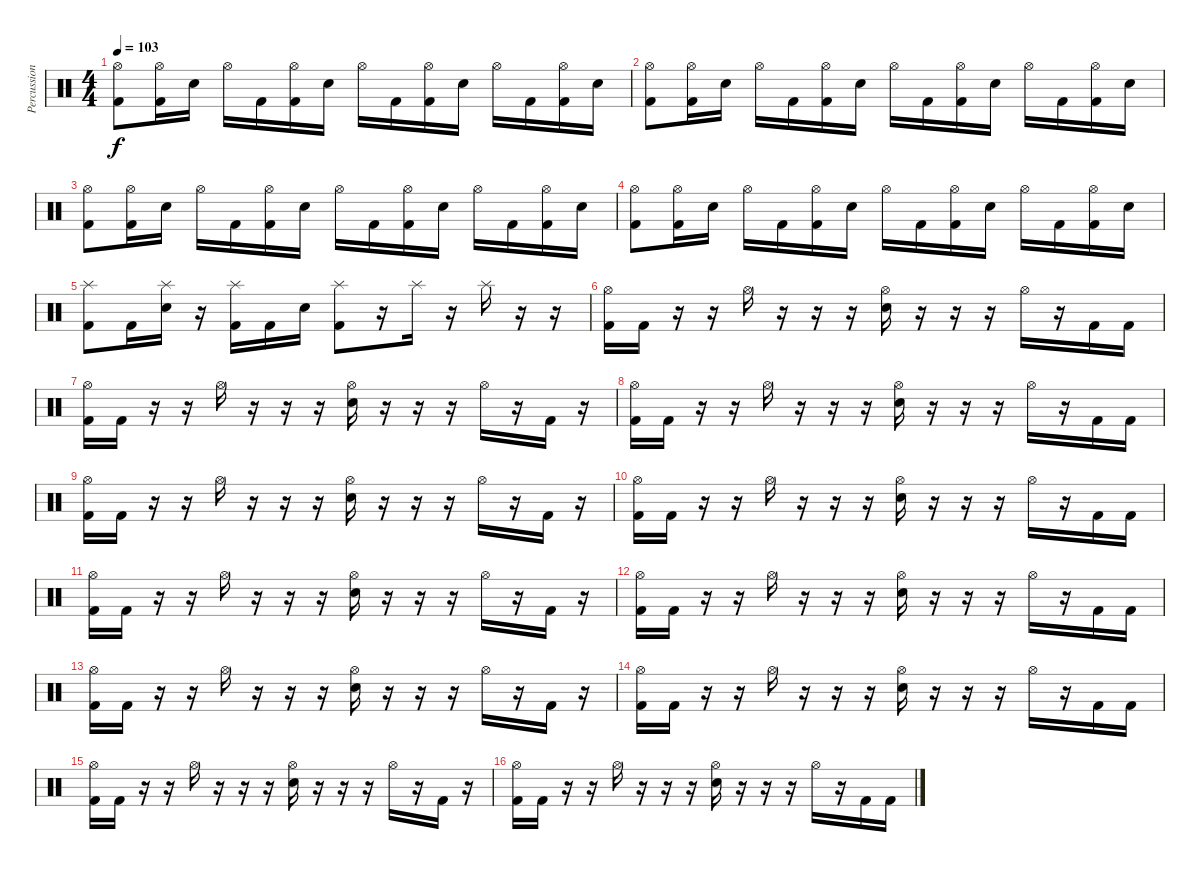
\track ("Percussion" "Percussion") {instrument percussion}
\staff {score}
\articulation defaults
\ts (4 4)
\tempo 103
\clef neutral
\ks c
("Hi-Hat (open)" "Kick (hit) 2").8{dy f} ("Hi-Hat (open)" "Kick (hit) 2").16 "Electric Snare (hit)".16 "Hi-Hat (open)".16 "Kick (hit) 2".16 ("Hi-Hat (open)" "Kick (hit) 2").16 "Electric Snare (hit)".16 "Hi-Hat (open)".16 "Kick (hit) 2".16 ("Hi-Hat (open)" "Kick (hit) 2").16 "Electric Snare (hit)".16 "Hi-Hat (open)".16 "Kick (hit) 2".16 ("Hi-Hat (open)" "Kick (hit) 2").16 "Electric Snare (hit)".16 |
("Hi-Hat (open)" "Kick (hit) 2").8 ("Hi-Hat (open)" "Kick (hit) 2").16 "Electric Snare (hit)".16 "Hi-Hat (open)".16 "Kick (hit) 2".16 ("Hi-Hat (open)" "Kick (hit) 2").16 "Electric Snare (hit)".16 "Hi-Hat (open)".16 "Kick (hit) 2".16 ("Hi-Hat (open)" "Kick (hit) 2").16 "Electric Snare (hit)".16 "Hi-Hat (open)".16 "Kick (hit) 2".16 ("Hi-Hat (open)" "Kick (hit) 2").16 "Electric Snare (hit)".16 |
("Hi-Hat (open)" "Kick (hit) 2").8 ("Hi-Hat (open)" "Kick (hit) 2").16 "Electric Snare (hit)".16 "Hi-Hat (open)".16 "Kick (hit) 2".16 ("Hi-Hat (open)" "Kick (hit) 2").16 "Electric Snare (hit)".16 "Hi-Hat (open)".16 "Kick (hit) 2".16 ("Hi-Hat (open)" "Kick (hit) 2").16 "Electric Snare (hit)".16 "Hi-Hat (open)".16 "Kick (hit) 2".16 ("Hi-Hat (open)" "Kick (hit) 2").16 "Electric Snare (hit)".16 |
("Hi-Hat (open)" "Kick (hit) 2").8 ("Hi-Hat (open)" "Kick (hit) 2").16 "Electric Snare (hit)".16 "Hi-Hat (open)".16 "Kick (hit) 2".16 ("Hi-Hat (open)" "Kick (hit) 2").16 "Electric Snare (hit)".16 "Hi-Hat (open)".16 "Kick (hit) 2".16 ("Hi-Hat (open)" "Kick (hit) 2").16 "Electric Snare (hit)".16 "Hi-Hat (open)".16 "Kick (hit) 2".16 ("Hi-Hat (open)" "Kick (hit) 2").16 "Electric Snare (hit)".16 |
("Splash (hit)" "Kick (hit) 2").8 "Kick (hit) 2".16 ("Splash (hit)" "Electric Snare (hit)").16 r.16 ("Splash (hit)" "Kick (hit) 2").16 "Kick (hit) 2".16 "Electric Snare (hit)".16 ("Splash (hit)" "Kick (hit) 2").8 r.16 "Splash (hit)".16 r.16 "Splash (hit)".16 r.16 r.16 |
("Hi-Hat (open)" "Kick (hit) 2").16 "Kick (hit) 2".16 r.16 r.16 "Hi-Hat (open)".16 r.16 r.16 r.16 ("Hi-Hat (open)" "Electric Snare (hit)").16 r.16 r.16 r.16 "Hi-Hat (open)".16 r.16 "Kick (hit) 2".16 "Kick (hit) 2".16 |
("Hi-Hat (open)" "Kick (hit) 2").16 "Kick (hit) 2".16 r.16 r.16 "Hi-Hat (open)".16 r.16 r.16 r.16 ("Hi-Hat (open)" "Electric Snare (hit)").16 r.16 r.16 r.16 "Hi-Hat (open)".16 r.16 "Kick (hit) 2".16 r.16 |
("Hi-Hat (open)" "Kick (hit) 2").16 "Kick (hit) 2".16 r.16 r.16 "Hi-Hat (open)".16 r.16 r.16 r.16 ("Hi-Hat (open)" "Electric Snare (hit)").16 r.16 r.16 r.16 "Hi-Hat (open)".16 r.16 "Kick (hit) 2".16 "Kick (hit) 2".16 |
("Hi-Hat (open)" "Kick (hit) 2").16 "Kick (hit) 2".16 r.16 r.16 "Hi-Hat (open)".16 r.16 r.16 r.16 ("Hi-Hat (open)" "Electric Snare (hit)").16 r.16 r.16 r.16 "Hi-Hat (open)".16 r.16 "Kick (hit) 2".16 r.16 |
("Hi-Hat (open)" "Kick (hit) 2").16 "Kick (hit) 2".16 r.16 r.16 "Hi-Hat (open)".16 r.16 r.16 r.16 ("Hi-Hat (open)" "Electric Snare (hit)").16 r.16 r.16 r.16 "Hi-Hat (open)".16 r.16 "Kick (hit) 2".16 "Kick (hit) 2".16 |
("Hi-Hat (open)" "Kick (hit) 2").16 "Kick (hit) 2".16 r.16 r.16 "Hi-Hat (open)".16 r.16 r.16 r.16 ("Hi-Hat (open)" "Electric Snare (hit)").16 r.16 r.16 r.16 "Hi-Hat (open)".16 r.16 "Kick (hit) 2".16 r.16 |
("Hi-Hat (open)" "Kick (hit) 2").16 "Kick (hit) 2".16 r.16 r.16 "Hi-Hat (open)".16 r.16 r.16 r.16 ("Hi-Hat (open)" "Electric Snare (hit)").16 r.16 r.16 r.16 "Hi-Hat (open)".16 r.16 "Kick (hit) 2".16 "Kick (hit) 2".16 |
("Hi-Hat (open)" "Kick (hit) 2").16 "Kick (hit) 2".16 r.16 r.16 "Hi-Hat (open)".16 r.16 r.16 r.16 ("Hi-Hat (open)" "Electric Snare (hit)").16 r.16 r.16 r.16 "Hi-Hat (open)".16 r.16 "Kick (hit) 2".16 r.16 |
("Hi-Hat (open)" "Kick (hit) 2").16{volume 0} "Kick (hit) 2".16 r.16 r.16 "Hi-Hat (open)".16 r.16 r.16 r.16 ("Hi-Hat (open)" "Electric Snare (hit)").16 r.16 r.16 r.16 "Hi-Hat (open)".16 r.16 "Kick (hit) 2".16 "Kick (hit) 2".16 |
("Hi-Hat (open)" "Kick (hit) 2").16 "Kick (hit) 2".16 r.16 r.16 "Hi-Hat (open)".16 r.16 r.16 r.16 ("Hi-Hat (open)" "Electric Snare (hit)").16 r.16 r.16 r.16 "Hi-Hat (open)".16 r.16 "Kick (hit) 2".16 r.16 |
("Hi-Hat (open)" "Kick (hit) 2").16 "Kick (hit) 2".16 r.16 r.16 "Hi-Hat (open)".16 r.16 r.16 r.16 ("Hi-Hat (open)" "Electric Snare (hit)").16 r.16 r.16 r.16 "Hi-Hat (open)".16 r.16 "Kick (hit) 2".16 "Kick (hit) 2".16
